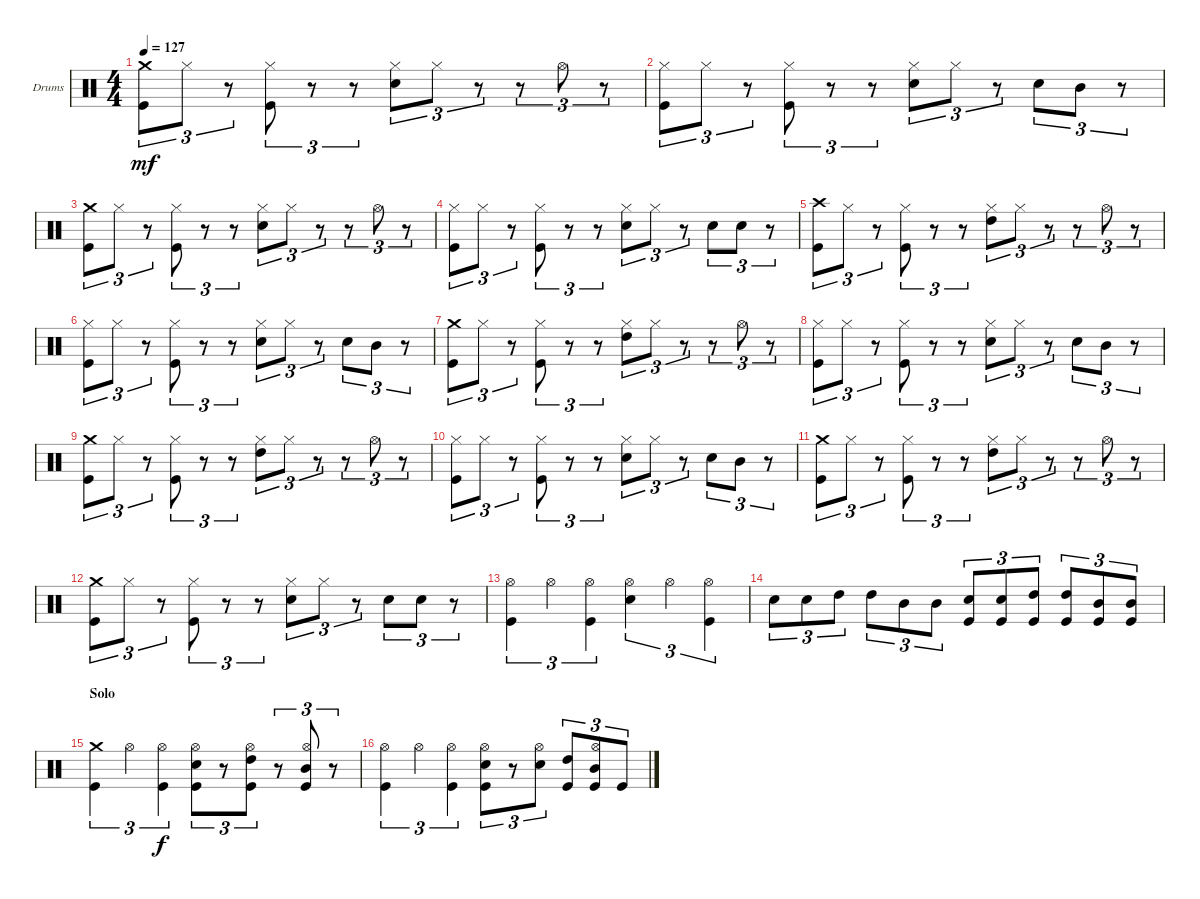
\bracketExtendMode groupsimilarinstruments
\firstSystemTrackNameOrientation horizontal
\otherSystemsTrackNameOrientation horizontal
\track ("Drumkit" "Drums") {instrument percussion}
\staff {score}
\articulation defaults
\ts (4 4)
\tempo 127
\clef neutral
\ks c
("Kick (hit)" "Crash medium (hit)").8{tu (3 2) dy mf} "Hi-Hat (closed)".8{tu (3 2)} r.8{tu (3 2)} ("Hi-Hat (closed)" "Kick (hit)").8{tu (3 2)} r.8{tu (3 2)} r.8{tu (3 2)} ("Snare (hit) 2" "Hi-Hat (closed)").8{tu (3 2)} "Hi-Hat (closed)".8{tu (3 2)} r.8{tu (3 2)} r.8{tu (3 2)} "Hi-Hat (open)".8{tu (3 2)} r.8{tu (3 2)} |
("Kick (hit)" "Hi-Hat (closed)").8{tu (3 2)} "Hi-Hat (closed)".8{tu (3 2)} r.8{tu (3 2)} ("Hi-Hat (closed)" "Kick (hit)").8{tu (3 2)} r.8{tu (3 2)} r.8{tu (3 2)} ("Hi-Hat (closed)" "Snare (hit) 2").8{tu (3 2)} "Hi-Hat (closed)".8{tu (3 2)} r.8{tu (3 2)} "Snare (hit) 2".8{tu (3 2)} "Mid Tom (hit)".8{tu (3 2)} r.8{tu (3 2)} |
("Kick (hit)" "Crash medium (hit)").8{tu (3 2)} "Hi-Hat (closed)".8{tu (3 2)} r.8{tu (3 2)} ("Hi-Hat (closed)" "Kick (hit)").8{tu (3 2)} r.8{tu (3 2)} r.8{tu (3 2)} ("Snare (hit) 2" "Hi-Hat (closed)").8{tu (3 2)} "Hi-Hat (closed)".8{tu (3 2)} r.8{tu (3 2)} r.8{tu (3 2)} "Hi-Hat (open)".8{tu (3 2)} r.8{tu (3 2)} |
("Kick (hit)" "Hi-Hat (closed)").8{tu (3 2)} "Hi-Hat (closed)".8{tu (3 2)} r.8{tu (3 2)} ("Hi-Hat (closed)" "Kick (hit)").8{tu (3 2)} r.8{tu (3 2)} r.8{tu (3 2)} ("Hi-Hat (closed)" "Snare (hit) 2").8{tu (3 2)} "Hi-Hat (closed)".8{tu (3 2)} r.8{tu (3 2)} "Snare (hit) 2".8{tu (3 2)} "Snare (hit) 2".8{tu (3 2)} r.8{tu (3 2)} |
("Kick (hit)" "Crash high (hit)").8{tu (3 2)} "Hi-Hat (closed)".8{tu (3 2)} r.8{tu (3 2)} ("Hi-Hat (closed)" "Kick (hit)").8{tu (3 2)} r.8{tu (3 2)} r.8{tu (3 2)} ("Hi-Hat (closed)" "High Tom (hit)").8{tu (3 2)} "Hi-Hat (closed)".8{tu (3 2)} r.8{tu (3 2)} r.8{tu (3 2)} "Hi-Hat (open)".8{tu (3 2)} r.8{tu (3 2)} |
("Kick (hit)" "Hi-Hat (closed)").8{tu (3 2)} "Hi-Hat (closed)".8{tu (3 2)} r.8{tu (3 2)} ("Hi-Hat (closed)" "Kick (hit)").8{tu (3 2)} r.8{tu (3 2)} r.8{tu (3 2)} ("Hi-Hat (closed)" "Snare (hit) 2").8{tu (3 2)} "Hi-Hat (closed)".8{tu (3 2)} r.8{tu (3 2)} "Snare (hit) 2".8{tu (3 2)} "Mid Tom (hit)".8{tu (3 2)} r.8{tu (3 2)} |
("Kick (hit)" "Crash medium (hit)").8{tu (3 2)} "Hi-Hat (closed)".8{tu (3 2)} r.8{tu (3 2)} ("Hi-Hat (closed)" "Kick (hit)").8{tu (3 2)} r.8{tu (3 2)} r.8{tu (3 2)} ("Hi-Hat (closed)" "High Tom (hit)").8{tu (3 2)} "Hi-Hat (closed)".8{tu (3 2)} r.8{tu (3 2)} r.8{tu (3 2)} "Hi-Hat (open)".8{tu (3 2)} r.8{tu (3 2)} |
("Kick (hit)" "Hi-Hat (closed)").8{tu (3 2)} "Hi-Hat (closed)".8{tu (3 2)} r.8{tu (3 2)} ("Hi-Hat (closed)" "Kick (hit)").8{tu (3 2)} r.8{tu (3 2)} r.8{tu (3 2)} ("Hi-Hat (closed)" "Snare (hit) 2").8{tu (3 2)} "Hi-Hat (closed)".8{tu (3 2)} r.8{tu (3 2)} "Snare (hit) 2".8{tu (3 2)} "Mid Tom (hit)".8{tu (3 2)} r.8{tu (3 2)} |
("Kick (hit)" "Crash medium (hit)").8{tu (3 2)} "Hi-Hat (closed)".8{tu (3 2)} r.8{tu (3 2)} ("Hi-Hat (closed)" "Kick (hit)").8{tu (3 2)} r.8{tu (3 2)} r.8{tu (3 2)} ("Hi-Hat (closed)" "High Tom (hit)").8{tu (3 2)} "Hi-Hat (closed)".8{tu (3 2)} r.8{tu (3 2)} r.8{tu (3 2)} "Hi-Hat (open)".8{tu (3 2)} r.8{tu (3 2)} |
("Kick (hit)" "Hi-Hat (closed)").8{tu (3 2)} "Hi-Hat (closed)".8{tu (3 2)} r.8{tu (3 2)} ("Hi-Hat (closed)" "Kick (hit)").8{tu (3 2)} r.8{tu (3 2)} r.8{tu (3 2)} ("Hi-Hat (closed)" "Snare (hit) 2").8{tu (3 2)} "Hi-Hat (closed)".8{tu (3 2)} r.8{tu (3 2)} "Snare (hit) 2".8{tu (3 2)} "Mid Tom (hit)".8{tu (3 2)} r.8{tu (3 2)} |
("Kick (hit)" "Crash medium (hit)").8{tu (3 2)} "Hi-Hat (closed)".8{tu (3 2)} r.8{tu (3 2)} ("Hi-Hat (closed)" "Kick (hit)").8{tu (3 2)} r.8{tu (3 2)} r.8{tu (3 2)} ("Hi-Hat (closed)" "High Tom (hit)").8{tu (3 2)} "Hi-Hat (closed)".8{tu (3 2)} r.8{tu (3 2)} r.8{tu (3 2)} "Hi-Hat (open)".8{tu (3 2)} r.8{tu (3 2)} |
("Kick (hit)" "Crash medium (hit)").8{tu (3 2)} "Hi-Hat (closed)".8{tu (3 2)} r.8{tu (3 2)} ("Hi-Hat (closed)" "Kick (hit)").8{tu (3 2)} r.8{tu (3 2)} r.8{tu (3 2)} ("Hi-Hat (closed)" "Snare (hit) 2").8{tu (3 2)} "Hi-Hat (closed)".8{tu (3 2)} r.8{tu (3 2)} "Snare (hit) 2".8{tu (3 2)} "Snare (hit) 2".8{tu (3 2)} r.8{tu (3 2)} |
("Kick (hit)" "Hi-Hat (open)").4{tu (3 2)} "Hi-Hat (open)".4{tu (3 2)} ("Hi-Hat (open)" "Kick (hit)").4{tu (3 2)} ("Hi-Hat (open)" "Snare (hit) 2").4{tu (3 2)} "Hi-Hat (open)".4{tu (3 2)} ("Hi-Hat (open)" "Kick (hit)").4{tu (3 2)} |
"Snare (hit) 2".8{tu (3 2)} "Snare (hit) 2".8{tu (3 2)} "High Tom (hit)".8{tu (3 2)} "High Tom (hit)".8{tu (3 2)} "Mid Tom (hit)".8{tu (3 2)} "Mid Tom (hit)".8{tu (3 2)} ("Snare (hit) 2" "Kick (hit)").8{tu (3 2)} ("Snare (hit) 2" "Kick (hit)").8{tu (3 2)} ("High Tom (hit)" "Kick (hit)").8{tu (3 2)} ("High Tom (hit)" "Kick (hit)").8{tu (3 2)} ("Mid Tom (hit)" "Kick (hit)").8{tu (3 2)} ("Mid Tom (hit)" "Kick (hit)").8{tu (3 2)} |
\section ("" "Solo")
("Crash medium (hit)" "Kick (hit)").4{tu (3 2)} "Hi-Hat (open)".4{tu (3 2)} ("Hi-Hat (open)" "Kick (hit)").4{tu (3 2) dy f} ("Hi-Hat (open)" "Snare (hit) 2" "Kick (hit)").8{tu (3 2)} r.8{tu (3 2)} ("Hi-Hat (open)" "High Tom (hit)" "Kick (hit)").8{tu (3 2)} r.8{tu (3 2)} ("Hi-Hat (open)" "Mid Tom (hit)" "Kick (hit)").8{tu (3 2)} r.8{tu (3 2)} |
("Hi-Hat (open)" "Kick (hit)").4{tu (3 2)} "Hi-Hat (open)".4{tu (3 2)} ("Hi-Hat (open)" "Kick (hit)").4{tu (3 2)} ("Hi-Hat (open)" "Snare (hit) 2" "Kick (hit)").8{tu (3 2)} r.8{tu (3 2)} ("Hi-Hat (open)" "Snare (hit) 2").8{tu (3 2)} ("High Tom (hit)" "Kick (hit)").8{tu (3 2)} ("Hi-Hat (open)" "Mid Tom (hit)" "Kick (hit)").8{tu (3 2)} "Kick (hit)".8{tu (3 2)}
